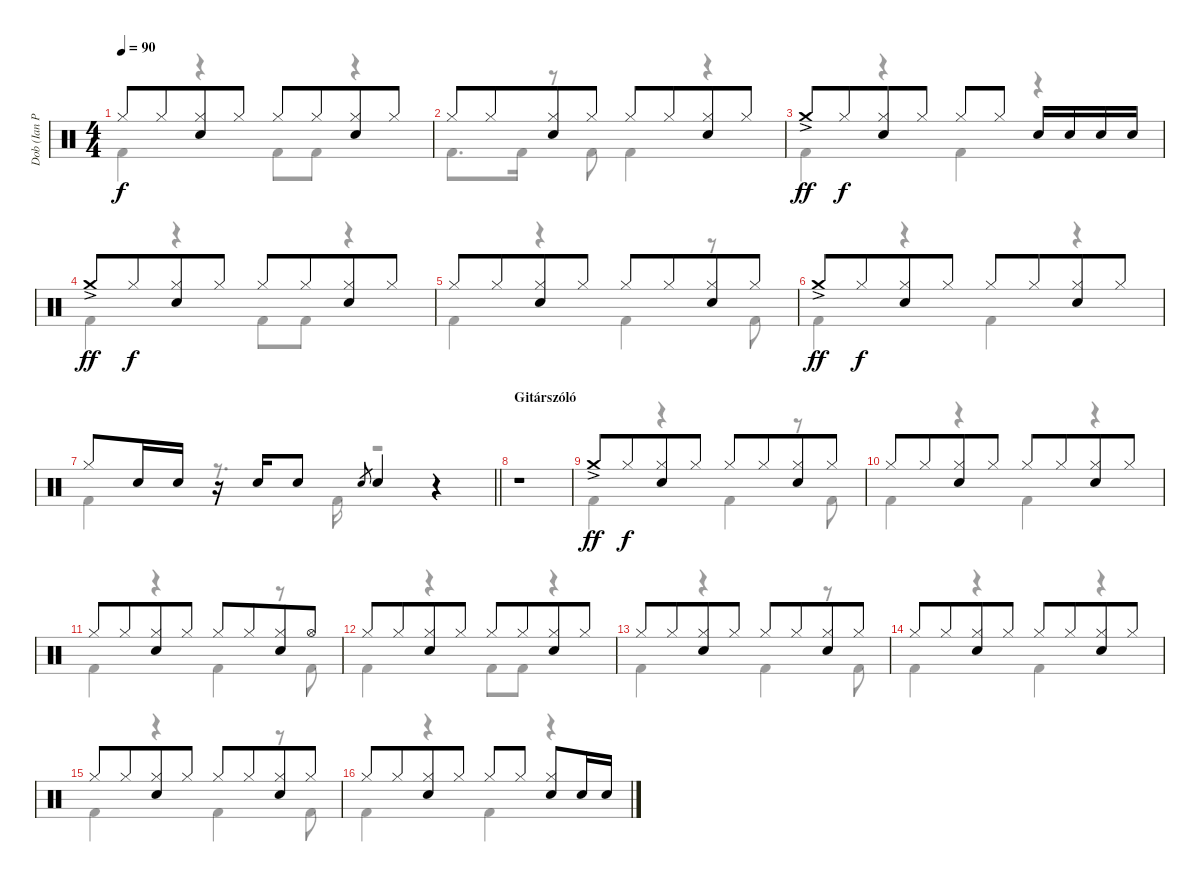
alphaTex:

\track ("Dob (Ian Paice)" "Dob (Ian P") {instrument percussion}
\staff {score}
\articulation defaults
\voice
\ts (4 4)
\tempo 90
\clef neutral
\ks c "Hi-Hat (closed)".8{dy f} "Hi-Hat (closed)".8{beam merge}
("Hi-Hat (closed)" "Electric Snare (hit)").8 "Hi-Hat (closed)".8 "Hi-Hat (closed)".8 "Hi-Hat (closed)".8{beam merge} ("Hi-Hat (closed)" "Electric Snare (hit)").8 "Hi-Hat (closed)".8 |
"Hi-Hat (closed)".8 "Hi-Hat (closed)".8{beam merge} ("Hi-Hat (closed)" "Electric Snare (hit)").8 "Hi-Hat (closed)".8 "Hi-Hat (closed)".8 "Hi-Hat (closed)".8{beam merge} ("Hi-Hat (closed)" "Electric Snare (hit)").8 "Hi-Hat (closed)".8 |
"Crash medium (hit)"{ac}.8{dy ff} "Hi-Hat (closed)".8{dy f beam merge} ("Hi-Hat (closed)" "Electric Snare (hit)").8 "Hi-Hat (closed)".8 "Hi-Hat (closed)".8 "Hi-Hat (closed)".8 "Electric Snare (hit)".16 "Electric Snare (hit)".16 "Electric Snare (hit)".16 "Electric Snare (hit)".16 |
"Crash medium (hit)"{ac}.8{dy ff} "Hi-Hat (closed)".8{dy f beam merge} ("Hi-Hat (closed)" "Electric Snare (hit)").8 "Hi-Hat (closed)".8 "Hi-Hat (closed)".8 "Hi-Hat (closed)".8{beam merge} ("Hi-Hat (closed)" "Electric Snare (hit)").8 "Hi-Hat (closed)".8 |
"Hi-Hat (closed)".8 "Hi-Hat (closed)".8{beam merge} ("Hi-Hat (closed)" "Electric Snare (hit)").8 "Hi-Hat (closed)".8 "Hi-Hat (closed)".8 "Hi-Hat (closed)".8{beam merge} ("Hi-Hat (closed)" "Electric Snare (hit)").8 "Hi-Hat (closed)".8 |
"Crash medium (hit)"{ac}.8{dy ff} "Hi-Hat (closed)".8{dy f beam merge} ("Hi-Hat (closed)" "Electric Snare (hit)").8 "Hi-Hat (closed)".8 "Hi-Hat (closed)".8 "Hi-Hat (closed)".8{beam merge} ("Hi-Hat (closed)" "Electric Snare (hit)").8 "Hi-Hat (closed)".8 |
\barLineRight lightlight "Hi-Hat (closed)".8 "Electric Snare (hit)".16 "Electric Snare (hit)".16
r.16 "Electric Snare (hit)".16 "Electric Snare (hit)".8 "Electric Snare (hit)".8{gr} "Electric Snare (hit)".4 r.4 |
\section ("" "Gitárszóló")
r.1 |
"Crash medium (hit)"{ac}.8{dy ff} "Hi-Hat (closed)".8{dy f beam merge} ("Hi-Hat (closed)" "Electric Snare (hit)").8 "Hi-Hat (closed)".8 "Hi-Hat (closed)".8 "Hi-Hat (closed)".8{beam merge} ("Hi-Hat (closed)" "Electric Snare (hit)").8 "Hi-Hat (closed)".8 |
"Hi-Hat (closed)".8 "Hi-Hat (closed)".8{beam merge} ("Hi-Hat (closed)" "Electric Snare (hit)").8 "Hi-Hat (closed)".8 "Hi-Hat (closed)".8 "Hi-Hat (closed)".8{beam merge} ("Hi-Hat (closed)" "Electric Snare (hit)").8 "Hi-Hat (closed)".8 |
"Hi-Hat (closed)".8 "Hi-Hat (closed)".8{beam merge} ("Hi-Hat (closed)" "Electric Snare (hit)").8 "Hi-Hat (closed)".8 "Hi-Hat (closed)".8 "Hi-Hat (closed)".8{beam merge} ("Hi-Hat (closed)" "Electric Snare (hit)").8 "Hi-Hat (open)".8 |
"Hi-Hat (closed)".8 "Hi-Hat (closed)".8{beam merge} ("Hi-Hat (closed)" "Electric Snare (hit)").8 "Hi-Hat (closed)".8 "Hi-Hat (closed)".8 "Hi-Hat (closed)".8{beam merge} ("Hi-Hat (closed)" "Electric Snare (hit)").8 "Hi-Hat (closed)".8 |
"Hi-Hat (closed)".8 "Hi-Hat (closed)".8{beam merge} ("Hi-Hat (closed)" "Electric Snare (hit)").8 "Hi-Hat (closed)".8 "Hi-Hat (closed)".8 "Hi-Hat (closed)".8{beam merge} ("Hi-Hat (closed)" "Electric Snare (hit)").8 "Hi-Hat (closed)".8 |
"Hi-Hat (closed)".8 "Hi-Hat (closed)".8{beam merge} ("Hi-Hat (closed)" "Electric Snare (hit)").8 "Hi-Hat (closed)".8 "Hi-Hat (closed)".8 "Hi-Hat (closed)".8{beam merge} ("Hi-Hat (closed)" "Electric Snare (hit)").8 "Hi-Hat (closed)".8 |
"Hi-Hat (closed)".8 "Hi-Hat (closed)".8{beam merge} ("Hi-Hat (closed)" "Electric Snare (hit)").8 "Hi-Hat (closed)".8 "Hi-Hat (closed)".8 "Hi-Hat (closed)".8{beam merge} ("Hi-Hat (closed)" "Electric Snare (hit)").8 "Hi-Hat (closed)".8 |
"Hi-Hat (closed)".8 "Hi-Hat (closed)".8{beam merge} ("Hi-Hat (closed)" "Electric Snare (hit)").8 "Hi-Hat (closed)".8 "Hi-Hat (closed)".8 "Hi-Hat (closed)".8 ("Hi-Hat (closed)" "Electric Snare (hit)").8 "Electric Snare (hit)".16 "Electric Snare (hit)".16
\voice
\clef neutral
\ottava regular
\simile none
\ks c "Kick (hit) 2".4{dy f}
r.4 "Kick (hit) 2".8 "Kick (hit) 2".8 r.4 |
"Kick (hit) 2".8{d} "Kick (hit) 2".16 r.8 "Kick (hit) 2".8 "Kick (hit) 2".4 r.4 |
"Kick (hit) 2".4 r.4 "Kick (hit) 2".4 r.4 |
"Kick (hit) 2".4 r.4 "Kick (hit) 2".8 "Kick (hit) 2".8 r.4 |
"Kick (hit) 2".4 r.4 "Kick (hit) 2".4 r.8 "Kick (hit) 2".8 |
"Kick (hit) 2".4 r.4 "Kick (hit) 2".4 r.4 |
\barLineRight lightlight "Kick (hit) 2".4
r.8{d} "Kick (hit) 2".16 r.2 |
r.1 |
"Kick (hit) 2".4 r.4 "Kick (hit) 2".4 r.8 "Kick (hit) 2".8 |
"Kick (hit) 2".4 r.4 "Kick (hit) 2".4 r.4 |
"Kick (hit) 2".4 r.4 "Kick (hit) 2".4 r.8 "Kick (hit) 2".8 |
"Kick (hit) 2".4 r.4 "Kick (hit) 2".8 "Kick (hit) 2".8 r.4 |
"Kick (hit) 2".4 r.4 "Kick (hit) 2".4 r.8 "Kick (hit) 2".8 |
"Kick (hit) 2".4 r.4 "Kick (hit) 2".4 r.4 |
"Kick (hit) 2".4 r.4 "Kick (hit) 2".4 r.8 "Kick (hit) 2".8 |
"Kick (hit) 2".4 r.4 "Kick (hit) 2".4 r.4
